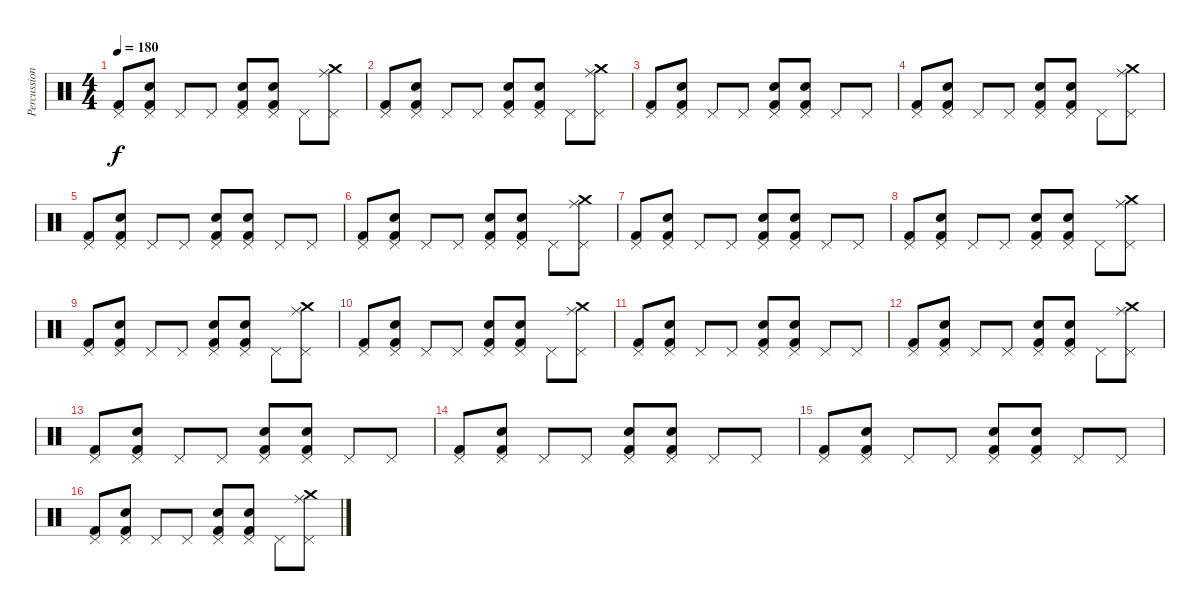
\track ("Percussion" "Percussion") {instrument percussion}
\staff {score}
\articulation defaults
\ts (4 4)
\tempo 180
\clef neutral
\ks c
("Pedal Hi-Hat (hit)" "Kick (hit) 2").8{dy f} ("Pedal Hi-Hat (hit)" "Snare (hit) 2" "Kick (hit) 2").8 "Pedal Hi-Hat (hit)".8 "Pedal Hi-Hat (hit)".8 ("Pedal Hi-Hat (hit)" "Snare (hit) 2" "Kick (hit) 2").8 ("Pedal Hi-Hat (hit)" "Snare (hit) 2" "Kick (hit) 2").8 "Pedal Hi-Hat (hit)".8 ("Pedal Hi-Hat (hit)" "Ride (middle)" "Crash medium (hit)").8 |
("Pedal Hi-Hat (hit)" "Kick (hit) 2").8 ("Pedal Hi-Hat (hit)" "Snare (hit) 2" "Kick (hit) 2").8 "Pedal Hi-Hat (hit)".8 "Pedal Hi-Hat (hit)".8 ("Pedal Hi-Hat (hit)" "Snare (hit) 2" "Kick (hit) 2").8 ("Pedal Hi-Hat (hit)" "Snare (hit) 2" "Kick (hit) 2").8 "Pedal Hi-Hat (hit)".8 ("Pedal Hi-Hat (hit)" "Ride (middle)" "Crash medium (hit)").8 |
("Pedal Hi-Hat (hit)" "Kick (hit) 2").8 ("Pedal Hi-Hat (hit)" "Snare (hit) 2" "Kick (hit) 2").8 "Pedal Hi-Hat (hit)".8 "Pedal Hi-Hat (hit)".8 ("Pedal Hi-Hat (hit)" "Snare (hit) 2" "Kick (hit) 2").8 ("Pedal Hi-Hat (hit)" "Snare (hit) 2" "Kick (hit) 2").8 "Pedal Hi-Hat (hit)".8 "Pedal Hi-Hat (hit)".8 |
("Pedal Hi-Hat (hit)" "Kick (hit) 2").8 ("Pedal Hi-Hat (hit)" "Snare (hit) 2" "Kick (hit) 2").8 "Pedal Hi-Hat (hit)".8 "Pedal Hi-Hat (hit)".8 ("Pedal Hi-Hat (hit)" "Snare (hit) 2" "Kick (hit) 2").8 ("Pedal Hi-Hat (hit)" "Snare (hit) 2" "Kick (hit) 2").8 "Pedal Hi-Hat (hit)".8 ("Pedal Hi-Hat (hit)" "Ride (middle)" "Crash medium (hit)").8 |
("Pedal Hi-Hat (hit)" "Kick (hit) 2").8 ("Pedal Hi-Hat (hit)" "Snare (hit) 2" "Kick (hit) 2").8 "Pedal Hi-Hat (hit)".8 "Pedal Hi-Hat (hit)".8 ("Pedal Hi-Hat (hit)" "Snare (hit) 2" "Kick (hit) 2").8 ("Pedal Hi-Hat (hit)" "Snare (hit) 2" "Kick (hit) 2").8 "Pedal Hi-Hat (hit)".8 "Pedal Hi-Hat (hit)".8 |
("Pedal Hi-Hat (hit)" "Kick (hit) 2").8 ("Pedal Hi-Hat (hit)" "Snare (hit) 2" "Kick (hit) 2").8 "Pedal Hi-Hat (hit)".8 "Pedal Hi-Hat (hit)".8 ("Pedal Hi-Hat (hit)" "Snare (hit) 2" "Kick (hit) 2").8 ("Pedal Hi-Hat (hit)" "Snare (hit) 2" "Kick (hit) 2").8 "Pedal Hi-Hat (hit)".8 ("Pedal Hi-Hat (hit)" "Ride (middle)" "Crash medium (hit)").8 |
("Pedal Hi-Hat (hit)" "Kick (hit) 2").8 ("Pedal Hi-Hat (hit)" "Snare (hit) 2" "Kick (hit) 2").8 "Pedal Hi-Hat (hit)".8 "Pedal Hi-Hat (hit)".8 ("Pedal Hi-Hat (hit)" "Snare (hit) 2" "Kick (hit) 2").8 ("Pedal Hi-Hat (hit)" "Snare (hit) 2" "Kick (hit) 2").8 "Pedal Hi-Hat (hit)".8 "Pedal Hi-Hat (hit)".8 |
("Pedal Hi-Hat (hit)" "Kick (hit) 2").8 ("Pedal Hi-Hat (hit)" "Snare (hit) 2" "Kick (hit) 2").8 "Pedal Hi-Hat (hit)".8 "Pedal Hi-Hat (hit)".8 ("Pedal Hi-Hat (hit)" "Snare (hit) 2" "Kick (hit) 2").8 ("Pedal Hi-Hat (hit)" "Snare (hit) 2" "Kick (hit) 2").8 "Pedal Hi-Hat (hit)".8 ("Pedal Hi-Hat (hit)" "Ride (middle)" "Crash medium (hit)").8 |
("Pedal Hi-Hat (hit)" "Kick (hit) 2").8 ("Pedal Hi-Hat (hit)" "Snare (hit) 2" "Kick (hit) 2").8 "Pedal Hi-Hat (hit)".8 "Pedal Hi-Hat (hit)".8 ("Pedal Hi-Hat (hit)" "Snare (hit) 2" "Kick (hit) 2").8 ("Pedal Hi-Hat (hit)" "Snare (hit) 2" "Kick (hit) 2").8 "Pedal Hi-Hat (hit)".8 ("Pedal Hi-Hat (hit)" "Ride (middle)" "Crash medium (hit)").8 |
("Pedal Hi-Hat (hit)" "Kick (hit) 2").8 ("Pedal Hi-Hat (hit)" "Snare (hit) 2" "Kick (hit) 2").8 "Pedal Hi-Hat (hit)".8 "Pedal Hi-Hat (hit)".8 ("Pedal Hi-Hat (hit)" "Snare (hit) 2" "Kick (hit) 2").8 ("Pedal Hi-Hat (hit)" "Snare (hit) 2" "Kick (hit) 2").8 "Pedal Hi-Hat (hit)".8 ("Pedal Hi-Hat (hit)" "Ride (middle)" "Crash medium (hit)").8 |
("Pedal Hi-Hat (hit)" "Kick (hit) 2").8 ("Pedal Hi-Hat (hit)" "Snare (hit) 2" "Kick (hit) 2").8 "Pedal Hi-Hat (hit)".8 "Pedal Hi-Hat (hit)".8 ("Pedal Hi-Hat (hit)" "Snare (hit) 2" "Kick (hit) 2").8 ("Pedal Hi-Hat (hit)" "Snare (hit) 2" "Kick (hit) 2").8 "Pedal Hi-Hat (hit)".8 "Pedal Hi-Hat (hit)".8 |
("Pedal Hi-Hat (hit)" "Kick (hit) 2").8 ("Pedal Hi-Hat (hit)" "Snare (hit) 2" "Kick (hit) 2").8 "Pedal Hi-Hat (hit)".8 "Pedal Hi-Hat (hit)".8 ("Pedal Hi-Hat (hit)" "Snare (hit) 2" "Kick (hit) 2").8 ("Pedal Hi-Hat (hit)" "Snare (hit) 2" "Kick (hit) 2").8 "Pedal Hi-Hat (hit)".8 ("Pedal Hi-Hat (hit)" "Ride (middle)" "Crash medium (hit)").8 |
("Pedal Hi-Hat (hit)" "Kick (hit) 2").8 ("Pedal Hi-Hat (hit)" "Snare (hit) 2" "Kick (hit) 2").8 "Pedal Hi-Hat (hit)".8 "Pedal Hi-Hat (hit)".8 ("Pedal Hi-Hat (hit)" "Snare (hit) 2" "Kick (hit) 2").8 ("Pedal Hi-Hat (hit)" "Snare (hit) 2" "Kick (hit) 2").8 "Pedal Hi-Hat (hit)".8 "Pedal Hi-Hat (hit)".8 |
("Pedal Hi-Hat (hit)" "Kick (hit) 2").8 ("Pedal Hi-Hat (hit)" "Snare (hit) 2" "Kick (hit) 2").8 "Pedal Hi-Hat (hit)".8 "Pedal Hi-Hat (hit)".8 ("Pedal Hi-Hat (hit)" "Snare (hit) 2" "Kick (hit) 2").8 ("Pedal Hi-Hat (hit)" "Snare (hit) 2" "Kick (hit) 2").8 "Pedal Hi-Hat (hit)".8 "Pedal Hi-Hat (hit)".8 |
("Pedal Hi-Hat (hit)" "Kick (hit) 2").8 ("Pedal Hi-Hat (hit)" "Snare (hit) 2" "Kick (hit) 2").8 "Pedal Hi-Hat (hit)".8 "Pedal Hi-Hat (hit)".8 ("Pedal Hi-Hat (hit)" "Snare (hit) 2" "Kick (hit) 2").8 ("Pedal Hi-Hat (hit)" "Snare (hit) 2" "Kick (hit) 2").8 "Pedal Hi-Hat (hit)".8 "Pedal Hi-Hat (hit)".8 |
("Pedal Hi-Hat (hit)" "Kick (hit) 2").8 ("Pedal Hi-Hat (hit)" "Snare (hit) 2" "Kick (hit) 2").8 "Pedal Hi-Hat (hit)".8 "Pedal Hi-Hat (hit)".8 ("Pedal Hi-Hat (hit)" "Snare (hit) 2" "Kick (hit) 2").8 ("Pedal Hi-Hat (hit)" "Snare (hit) 2" "Kick (hit) 2").8 "Pedal Hi-Hat (hit)".8 ("Pedal Hi-Hat (hit)" "Ride (middle)" "Crash medium (hit)").8
